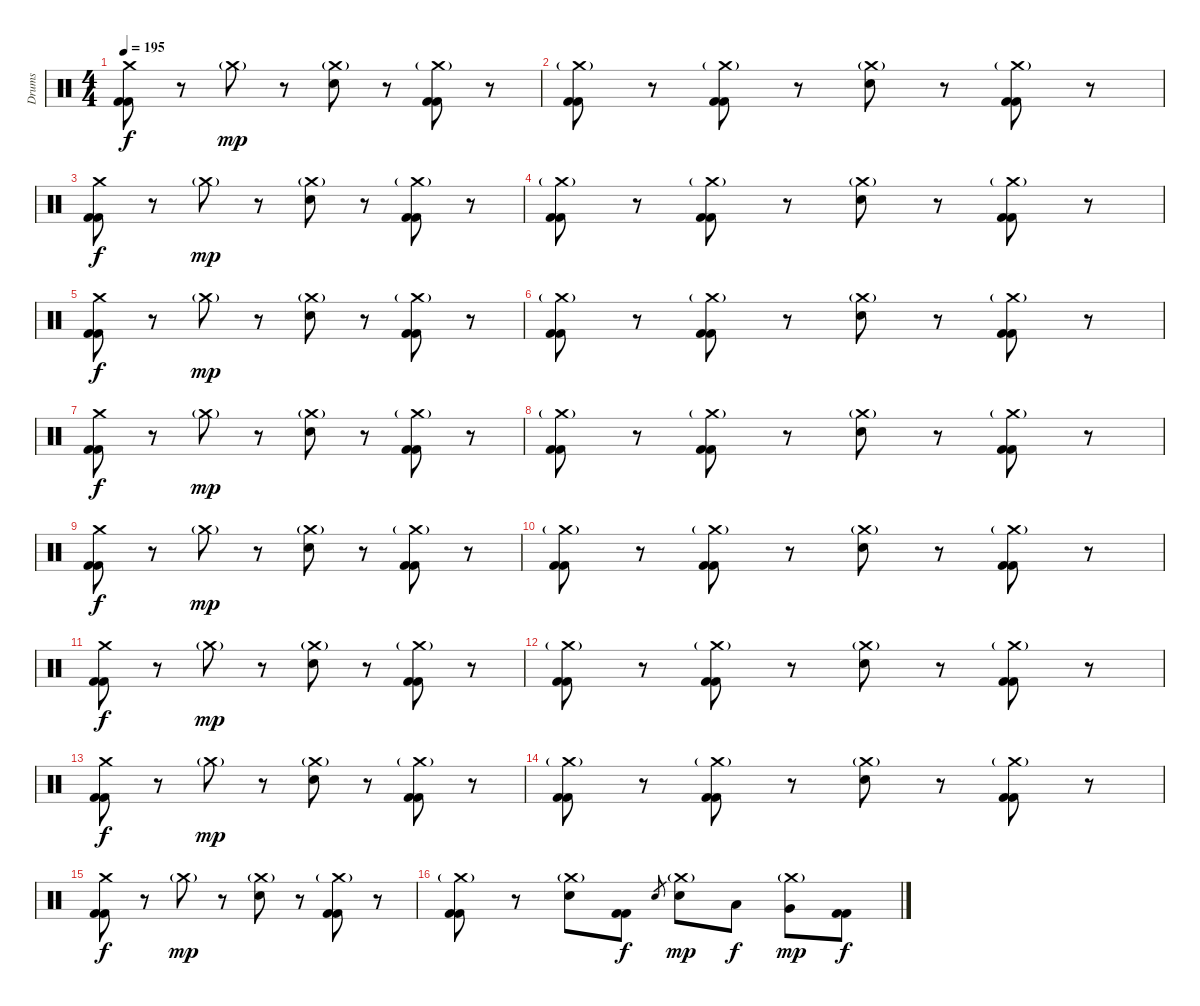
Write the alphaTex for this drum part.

\track ("Drums" "Drums") {instrument percussion}
\staff {score}
\articulation defaults
\ts (4 4)
\tempo 195
\clef neutral
\ks c
("Crash medium (hit)" "Kick (hit) 2" "Kick (hit) 2").8{dy f} r.8 "Crash medium (hit)"{g}.8{dy mp} r.8 ("Crash medium (hit)"{g} "Electric Snare (hit)").8 r.8 ("Crash medium (hit)"{g} "Kick (hit) 2" "Kick (hit) 2").8 r.8 |
("Crash medium (hit)"{g} "Kick (hit) 2" "Kick (hit) 2").8 r.8 ("Crash medium (hit)"{g} "Kick (hit) 2" "Kick (hit) 2").8 r.8 ("Crash medium (hit)"{g} "Electric Snare (hit)").8 r.8 ("Crash medium (hit)"{g} "Kick (hit) 2" "Kick (hit) 2").8 r.8 |
("Crash medium (hit)" "Kick (hit) 2" "Kick (hit) 2").8{dy f} r.8 "Crash medium (hit)"{g}.8{dy mp} r.8 ("Crash medium (hit)"{g} "Electric Snare (hit)").8 r.8 ("Crash medium (hit)"{g} "Kick (hit) 2" "Kick (hit) 2").8 r.8 |
("Crash medium (hit)"{g} "Kick (hit) 2" "Kick (hit) 2").8 r.8 ("Crash medium (hit)"{g} "Kick (hit) 2" "Kick (hit) 2").8 r.8 ("Crash medium (hit)"{g} "Electric Snare (hit)").8 r.8 ("Crash medium (hit)"{g} "Kick (hit) 2" "Kick (hit) 2").8 r.8 |
("Crash medium (hit)" "Kick (hit) 2" "Kick (hit) 2").8{dy f} r.8 "Crash medium (hit)"{g}.8{dy mp} r.8 ("Crash medium (hit)"{g} "Electric Snare (hit)").8 r.8 ("Crash medium (hit)"{g} "Kick (hit) 2" "Kick (hit) 2").8 r.8 |
("Crash medium (hit)"{g} "Kick (hit) 2" "Kick (hit) 2").8 r.8 ("Crash medium (hit)"{g} "Kick (hit) 2" "Kick (hit) 2").8 r.8 ("Crash medium (hit)"{g} "Electric Snare (hit)").8 r.8 ("Crash medium (hit)"{g} "Kick (hit) 2" "Kick (hit) 2").8 r.8 |
("Crash medium (hit)" "Kick (hit) 2" "Kick (hit) 2").8{dy f} r.8 "Crash medium (hit)"{g}.8{dy mp} r.8 ("Crash medium (hit)"{g} "Electric Snare (hit)").8 r.8 ("Crash medium (hit)"{g} "Kick (hit) 2" "Kick (hit) 2").8 r.8 |
("Crash medium (hit)"{g} "Kick (hit) 2" "Kick (hit) 2").8 r.8 ("Crash medium (hit)"{g} "Kick (hit) 2" "Kick (hit) 2").8 r.8 ("Crash medium (hit)"{g} "Electric Snare (hit)").8 r.8 ("Crash medium (hit)"{g} "Kick (hit) 2" "Kick (hit) 2").8 r.8 |
("Crash medium (hit)" "Kick (hit) 2" "Kick (hit) 2").8{dy f} r.8 "Crash medium (hit)"{g}.8{dy mp} r.8 ("Crash medium (hit)"{g} "Electric Snare (hit)").8 r.8 ("Crash medium (hit)"{g} "Kick (hit) 2" "Kick (hit) 2").8 r.8 |
("Crash medium (hit)"{g} "Kick (hit) 2" "Kick (hit) 2").8 r.8 ("Crash medium (hit)"{g} "Kick (hit) 2" "Kick (hit) 2").8 r.8 ("Crash medium (hit)"{g} "Electric Snare (hit)").8 r.8 ("Crash medium (hit)"{g} "Kick (hit) 2" "Kick (hit) 2").8 r.8 |
("Crash medium (hit)" "Kick (hit) 2" "Kick (hit) 2").8{dy f} r.8 "Crash medium (hit)"{g}.8{dy mp} r.8 ("Crash medium (hit)"{g} "Electric Snare (hit)").8 r.8 ("Crash medium (hit)"{g} "Kick (hit) 2" "Kick (hit) 2").8 r.8 |
("Crash medium (hit)"{g} "Kick (hit) 2" "Kick (hit) 2").8 r.8 ("Crash medium (hit)"{g} "Kick (hit) 2" "Kick (hit) 2").8 r.8 ("Crash medium (hit)"{g} "Electric Snare (hit)").8 r.8 ("Crash medium (hit)"{g} "Kick (hit) 2" "Kick (hit) 2").8 r.8 |
("Crash medium (hit)" "Kick (hit) 2" "Kick (hit) 2").8{dy f} r.8 "Crash medium (hit)"{g}.8{dy mp} r.8 ("Crash medium (hit)"{g} "Electric Snare (hit)").8 r.8 ("Crash medium (hit)"{g} "Kick (hit) 2" "Kick (hit) 2").8 r.8 |
("Crash medium (hit)"{g} "Kick (hit) 2" "Kick (hit) 2").8 r.8 ("Crash medium (hit)"{g} "Kick (hit) 2" "Kick (hit) 2").8 r.8 ("Crash medium (hit)"{g} "Electric Snare (hit)").8 r.8 ("Crash medium (hit)"{g} "Kick (hit) 2" "Kick (hit) 2").8 r.8 |
("Crash medium (hit)" "Kick (hit) 2" "Kick (hit) 2").8{dy f} r.8 "Crash medium (hit)"{g}.8{dy mp} r.8 ("Crash medium (hit)"{g} "Electric Snare (hit)").8 r.8 ("Crash medium (hit)"{g} "Kick (hit) 2" "Kick (hit) 2").8 r.8 |
("Crash medium (hit)"{g} "Kick (hit) 2" "Kick (hit) 2").8 r.8 ("Crash medium (hit)"{g} "Electric Snare (hit)").8 ("Kick (hit) 2" "Kick (hit) 2").8{dy f} "Electric Snare (hit)".8{gr} ("Crash medium (hit)"{g} "Electric Snare (hit)").8{dy mp} "Low Tom (hit)".8{dy f} ("Crash medium (hit)"{g} "Very Low Tom (hit)").8{dy mp} ("Kick (hit) 2" "Kick (hit) 2").8{dy f}
